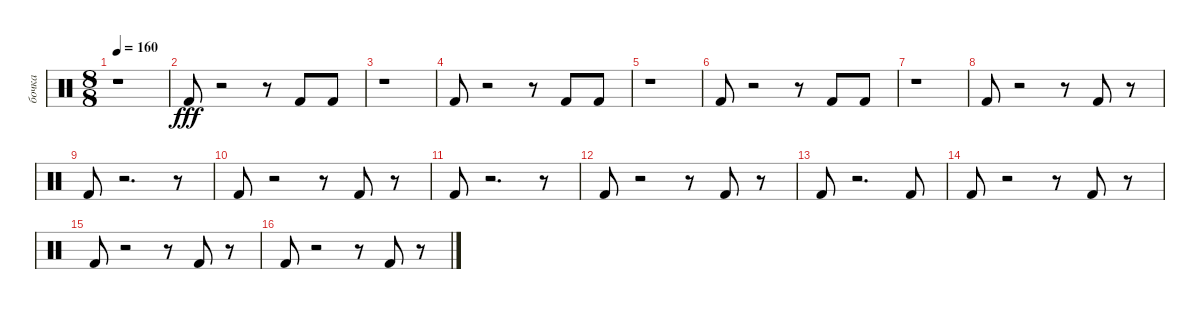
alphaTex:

\track ("бочка" "бочка") {instrument percussion}
\staff {score}
\articulation defaults
\ts (8 8)
\tempo 160
\clef neutral
\ks c
r.1{dy fff} |
"Kick (hit) 2".8 r.2 r.8 "Kick (hit) 2".8 "Kick (hit) 2".8 |
r.1 |
"Kick (hit) 2".8 r.2 r.8 "Kick (hit) 2".8 "Kick (hit) 2".8 |
r.1 |
"Kick (hit) 2".8 r.2 r.8 "Kick (hit) 2".8 "Kick (hit) 2".8 |
r.1 |
"Kick (hit) 2".8 r.2 r.8 "Kick (hit) 2".8 r.8 |
"Kick (hit) 2".8 r.2{d} r.8 |
"Kick (hit) 2".8 r.2 r.8 "Kick (hit) 2".8 r.8 |
"Kick (hit) 2".8 r.2{d} r.8 |
"Kick (hit) 2".8 r.2 r.8 "Kick (hit) 2".8 r.8 |
"Kick (hit) 2".8 r.2{d} "Kick (hit) 2".8 |
"Kick (hit) 2".8 r.2 r.8 "Kick (hit) 2".8 r.8 |
"Kick (hit) 2".8 r.2 r.8 "Kick (hit) 2".8 r.8 |
"Kick (hit) 2".8 r.2 r.8 "Kick (hit) 2".8 r.8
